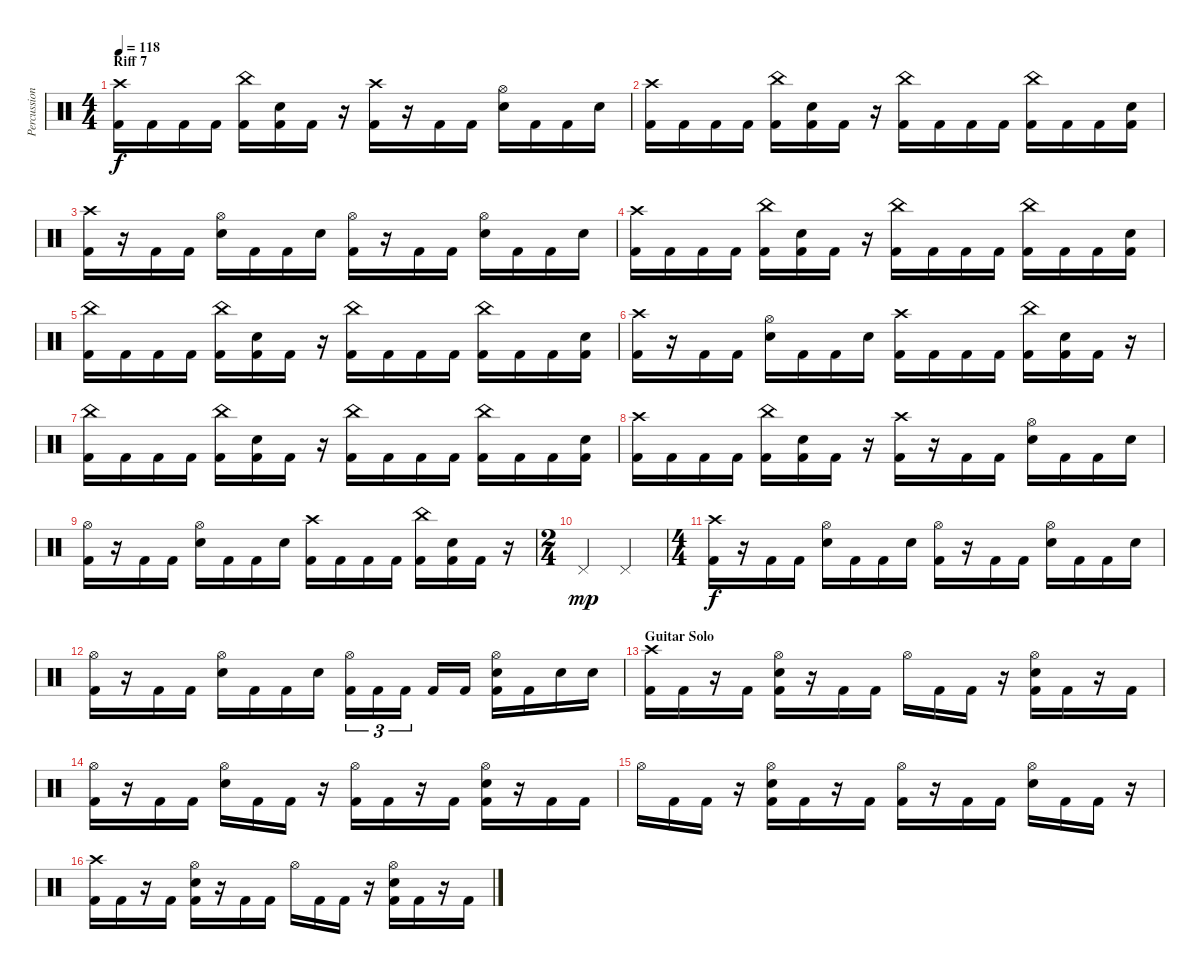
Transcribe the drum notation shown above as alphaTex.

\track ("Percussion" "Percussion") {instrument percussion}
\staff {score}
\articulation defaults
\ts (4 4)
\section ("" "Riff 7")
\tempo 118
\clef neutral
\ks c
("Crash high (hit)" "Kick (hit) 2").16{dy f} "Kick (hit) 2".16 "Kick (hit) 2".16 "Kick (hit) 2".16 ("China (hit)" "Kick (hit) 2").16 ("Electric Snare (hit)" "Kick (hit) 2").16 "Kick (hit) 2".16 r.16 ("Crash high (hit)" "Kick (hit) 2").16 r.16 "Kick (hit) 2".16 "Kick (hit) 2".16 ("Hi-Hat (open)" "Electric Snare (hit)").16 "Kick (hit) 2".16 "Kick (hit) 2".16 "Electric Snare (hit)".16 |
("Crash high (hit)" "Kick (hit) 2").16 "Kick (hit) 2".16 "Kick (hit) 2".16 "Kick (hit) 2".16 ("China (hit)" "Kick (hit) 2").16 ("Electric Snare (hit)" "Kick (hit) 2").16 "Kick (hit) 2".16 r.16 ("China (hit)" "Kick (hit) 2").16 "Kick (hit) 2".16 "Kick (hit) 2".16 "Kick (hit) 2".16 ("China (hit)" "Kick (hit) 2").16 "Kick (hit) 2".16 "Kick (hit) 2".16 ("Electric Snare (hit)" "Kick (hit) 2").16 |
("Crash high (hit)" "Kick (hit) 2").16 r.16 "Kick (hit) 2".16 "Kick (hit) 2".16 ("Hi-Hat (open)" "Electric Snare (hit)").16 "Kick (hit) 2".16 "Kick (hit) 2".16 "Electric Snare (hit)".16 ("Hi-Hat (open)" "Kick (hit) 2").16 r.16 "Kick (hit) 2".16 "Kick (hit) 2".16 ("Hi-Hat (open)" "Electric Snare (hit)").16 "Kick (hit) 2".16 "Kick (hit) 2".16 "Electric Snare (hit)".16 |
("Crash high (hit)" "Kick (hit) 2").16 "Kick (hit) 2".16 "Kick (hit) 2".16 "Kick (hit) 2".16 ("China (hit)" "Kick (hit) 2").16 ("Electric Snare (hit)" "Kick (hit) 2").16 "Kick (hit) 2".16 r.16 ("China (hit)" "Kick (hit) 2").16 "Kick (hit) 2".16 "Kick (hit) 2".16 "Kick (hit) 2".16 ("China (hit)" "Kick (hit) 2").16 "Kick (hit) 2".16 "Kick (hit) 2".16 ("Electric Snare (hit)" "Kick (hit) 2").16 |
("China (hit)" "Kick (hit) 2").16 "Kick (hit) 2".16 "Kick (hit) 2".16 "Kick (hit) 2".16 ("China (hit)" "Kick (hit) 2").16 ("Electric Snare (hit)" "Kick (hit) 2").16 "Kick (hit) 2".16 r.16 ("China (hit)" "Kick (hit) 2").16 "Kick (hit) 2".16 "Kick (hit) 2".16 "Kick (hit) 2".16 ("China (hit)" "Kick (hit) 2").16 "Kick (hit) 2".16 "Kick (hit) 2".16 ("Electric Snare (hit)" "Kick (hit) 2").16 |
("Crash high (hit)" "Kick (hit) 2").16 r.16 "Kick (hit) 2".16 "Kick (hit) 2".16 ("Hi-Hat (open)" "Electric Snare (hit)").16 "Kick (hit) 2".16 "Kick (hit) 2".16 "Electric Snare (hit)".16 ("Crash high (hit)" "Kick (hit) 2").16 "Kick (hit) 2".16 "Kick (hit) 2".16 "Kick (hit) 2".16 ("China (hit)" "Kick (hit) 2").16 ("Electric Snare (hit)" "Kick (hit) 2").16 "Kick (hit) 2".16 r.16 |
("China (hit)" "Kick (hit) 2").16 "Kick (hit) 2".16 "Kick (hit) 2".16 "Kick (hit) 2".16 ("China (hit)" "Kick (hit) 2").16 ("Electric Snare (hit)" "Kick (hit) 2").16 "Kick (hit) 2".16 r.16 ("China (hit)" "Kick (hit) 2").16 "Kick (hit) 2".16 "Kick (hit) 2".16 "Kick (hit) 2".16 ("China (hit)" "Kick (hit) 2").16 "Kick (hit) 2".16 "Kick (hit) 2".16 ("Electric Snare (hit)" "Kick (hit) 2").16 |
("Crash high (hit)" "Kick (hit) 2").16 "Kick (hit) 2".16 "Kick (hit) 2".16 "Kick (hit) 2".16 ("China (hit)" "Kick (hit) 2").16 ("Electric Snare (hit)" "Kick (hit) 2").16 "Kick (hit) 2".16 r.16 ("Crash high (hit)" "Kick (hit) 2").16 r.16 "Kick (hit) 2".16 "Kick (hit) 2".16 ("Hi-Hat (open)" "Electric Snare (hit)").16 "Kick (hit) 2".16 "Kick (hit) 2".16 "Electric Snare (hit)".16 |
("Hi-Hat (open)" "Kick (hit) 2").16 r.16 "Kick (hit) 2".16 "Kick (hit) 2".16 ("Hi-Hat (open)" "Electric Snare (hit)").16 "Kick (hit) 2".16 "Kick (hit) 2".16 "Electric Snare (hit)".16 ("Crash high (hit)" "Kick (hit) 2").16 "Kick (hit) 2".16 "Kick (hit) 2".16 "Kick (hit) 2".16 ("China (hit)" "Kick (hit) 2").16 ("Electric Snare (hit)" "Kick (hit) 2").16 "Kick (hit) 2".16 r.16 |
\ts (2 4)
"Pedal Hi-Hat (hit)".4{dy mp} "Pedal Hi-Hat (hit)".4 |
\ts (4 4)
("Crash high (hit)" "Kick (hit) 2").16{dy f} r.16 "Kick (hit) 2".16 "Kick (hit) 2".16 ("Hi-Hat (open)" "Electric Snare (hit)").16 "Kick (hit) 2".16 "Kick (hit) 2".16 "Electric Snare (hit)".16 ("Hi-Hat (open)" "Kick (hit) 2").16 r.16 "Kick (hit) 2".16 "Kick (hit) 2".16 ("Hi-Hat (open)" "Electric Snare (hit)").16 "Kick (hit) 2".16 "Kick (hit) 2".16 "Electric Snare (hit)".16 |
("Hi-Hat (open)" "Kick (hit) 2").16 r.16 "Kick (hit) 2".16 "Kick (hit) 2".16 ("Hi-Hat (open)" "Electric Snare (hit)").16 "Kick (hit) 2".16 "Kick (hit) 2".16 "Electric Snare (hit)".16 ("Hi-Hat (open)" "Kick (hit) 2").16{tu (3 2)} "Kick (hit) 2".16{tu (3 2)} "Kick (hit) 2".16{tu (3 2)} "Kick (hit) 2".16 "Kick (hit) 2".16 ("Hi-Hat (open)" "Electric Snare (hit)" "Kick (hit) 2").16 "Kick (hit) 2".16 "Electric Snare (hit)".16 "Electric Snare (hit)".16 |
\section ("" "Guitar Solo")
("Crash high (hit)" "Kick (hit) 2").16 "Kick (hit) 2".16 r.16 "Kick (hit) 2".16 ("Hi-Hat (open)" "Electric Snare (hit)" "Kick (hit) 2").16 r.16 "Kick (hit) 2".16 "Kick (hit) 2".16 "Hi-Hat (open)".16 "Kick (hit) 2".16 "Kick (hit) 2".16 r.16 ("Hi-Hat (open)" "Electric Snare (hit)" "Kick (hit) 2").16 "Kick (hit) 2".16 r.16 "Kick (hit) 2".16 |
("Hi-Hat (open)" "Kick (hit) 2").16 r.16 "Kick (hit) 2".16 "Kick (hit) 2".16 ("Hi-Hat (open)" "Electric Snare (hit)").16 "Kick (hit) 2".16 "Kick (hit) 2".16 r.16 ("Hi-Hat (open)" "Kick (hit) 2").16 "Kick (hit) 2".16 r.16 "Kick (hit) 2".16 ("Hi-Hat (open)" "Electric Snare (hit)" "Kick (hit) 2").16 r.16 "Kick (hit) 2".16 "Kick (hit) 2".16 |
"Hi-Hat (open)".16 "Kick (hit) 2".16 "Kick (hit) 2".16 r.16 ("Hi-Hat (open)" "Electric Snare (hit)" "Kick (hit) 2").16 "Kick (hit) 2".16 r.16 "Kick (hit) 2".16 ("Hi-Hat (open)" "Kick (hit) 2").16 r.16 "Kick (hit) 2".16 "Kick (hit) 2".16 ("Hi-Hat (open)" "Electric Snare (hit)").16 "Kick (hit) 2".16 "Kick (hit) 2".16 r.16 |
("Crash high (hit)" "Kick (hit) 2").16 "Kick (hit) 2".16 r.16 "Kick (hit) 2".16 ("Hi-Hat (open)" "Electric Snare (hit)" "Kick (hit) 2").16 r.16 "Kick (hit) 2".16 "Kick (hit) 2".16 "Hi-Hat (open)".16 "Kick (hit) 2".16 "Kick (hit) 2".16 r.16 ("Hi-Hat (open)" "Electric Snare (hit)" "Kick (hit) 2").16 "Kick (hit) 2".16 r.16 "Kick (hit) 2".16
